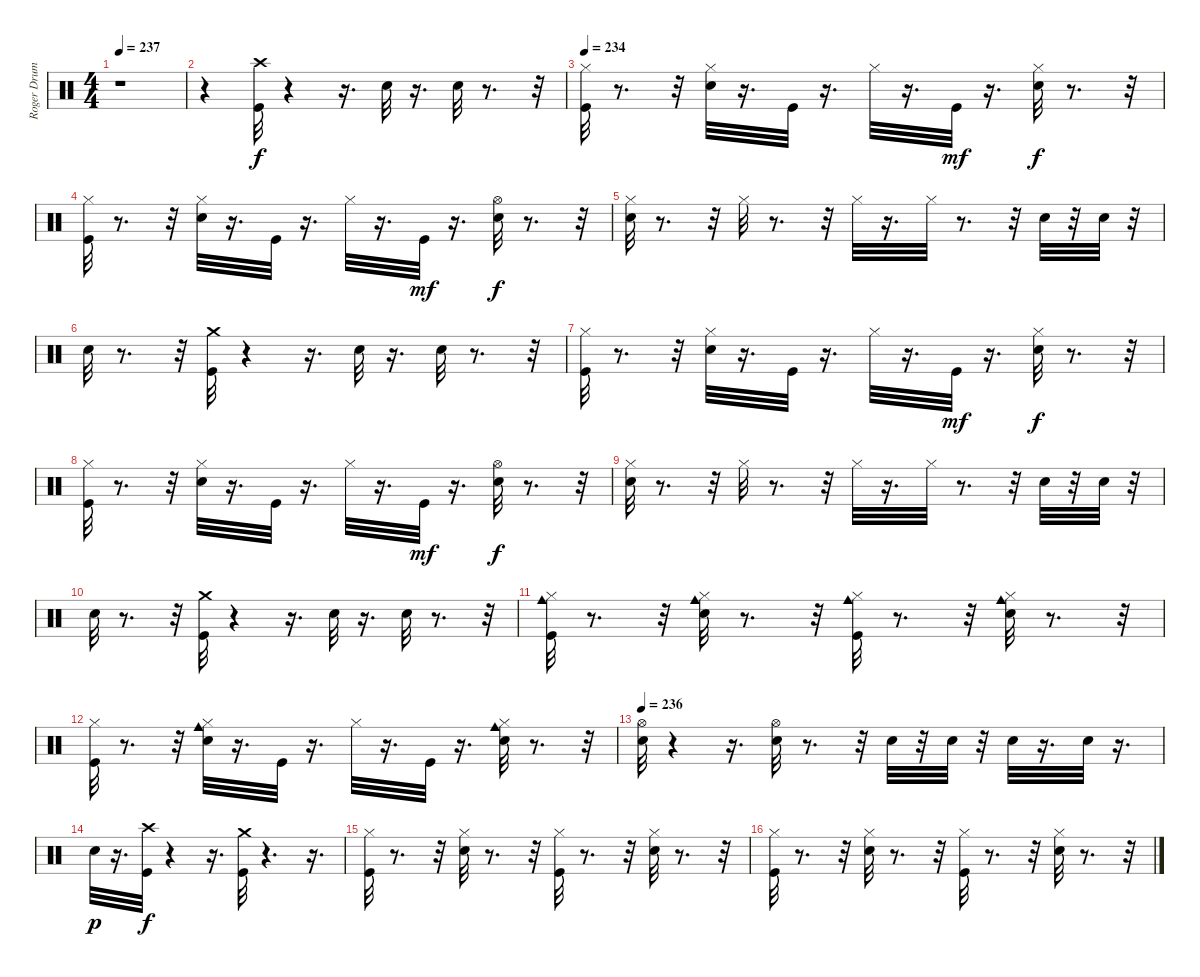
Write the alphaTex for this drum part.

\track ("Roger Drums" "Roger Drum") {instrument percussion}
\staff {score}
\articulation defaults
\ts (4 4)
\tempo 237
\clef neutral
\ks c
r.1{dy f} |
r.4 ("Kick (hit)" "Crash high (hit)").32 r.4 r.16{d} "Electric Snare (hit)".32 r.16{d} "Electric Snare (hit)".32 r.8{d} r.32 |
\tempo 234
("Hi-Hat (closed)" "Kick (hit)").32 r.8{d} r.32 ("Hi-Hat (closed)" "Electric Snare (hit)").32 r.16{d} "Kick (hit)".32 r.16{d} "Hi-Hat (closed)".32 r.16{d} "Kick (hit)".32{dy mf} r.16{d} ("Hi-Hat (closed)" "Electric Snare (hit)").32{dy f} r.8{d} r.32 |
("Hi-Hat (closed)" "Kick (hit)").32 r.8{d} r.32 ("Hi-Hat (closed)" "Electric Snare (hit)").32 r.16{d} "Kick (hit)".32 r.16{d} "Hi-Hat (closed)".32 r.16{d} "Kick (hit)".32{dy mf} r.16{d} ("Hi-Hat (open)" "Electric Snare (hit)").32{dy f} r.8{d} r.32 |
("Hi-Hat (closed)" "Electric Snare (hit)").32 r.8{d} r.32 "Hi-Hat (closed)".32 r.8{d} r.32 "Hi-Hat (closed)".32 r.16{d} "Hi-Hat (closed)".32 r.8{d} r.32 "Electric Snare (hit)".32 r.32 "Electric Snare (hit)".32 r.32 |
"Electric Snare (hit)".32 r.8{d} r.32 ("Kick (hit)" "Crash medium (hit)").32 r.4 r.16{d} "Electric Snare (hit)".32 r.16{d} "Electric Snare (hit)".32 r.8{d} r.32 |
("Hi-Hat (closed)" "Kick (hit)").32 r.8{d} r.32 ("Hi-Hat (closed)" "Electric Snare (hit)").32 r.16{d} "Kick (hit)".32 r.16{d} "Hi-Hat (closed)".32 r.16{d} "Kick (hit)".32{dy mf} r.16{d} ("Hi-Hat (closed)" "Electric Snare (hit)").32{dy f} r.8{d} r.32 |
("Hi-Hat (closed)" "Kick (hit)").32 r.8{d} r.32 ("Hi-Hat (closed)" "Electric Snare (hit)").32 r.16{d} "Kick (hit)".32 r.16{d} "Hi-Hat (closed)".32 r.16{d} "Kick (hit)".32{dy mf} r.16{d} ("Hi-Hat (open)" "Electric Snare (hit)").32{dy f} r.8{d} r.32 |
("Hi-Hat (closed)" "Electric Snare (hit)").32 r.8{d} r.32 "Hi-Hat (closed)".32 r.8{d} r.32 "Hi-Hat (closed)".32 r.16{d} "Hi-Hat (closed)".32 r.8{d} r.32 "Electric Snare (hit)".32 r.32 "Electric Snare (hit)".32 r.32 |
"Electric Snare (hit)".32 r.8{d} r.32 ("Kick (hit)" "Crash medium (hit)").32 r.4 r.16{d} "Electric Snare (hit)".32 r.16{d} "Electric Snare (hit)".32 r.8{d} r.32 |
("Cowbell medium (hit)" "Hi-Hat (closed)" "Kick (hit)").32 r.8{d} r.32 ("Cowbell medium (hit)" "Hi-Hat (closed)" "Electric Snare (hit)").32 r.8{d} r.32 ("Cowbell medium (hit)" "Hi-Hat (closed)" "Kick (hit)").32 r.8{d} r.32 ("Cowbell medium (hit)" "Hi-Hat (closed)" "Electric Snare (hit)").32 r.8{d} r.32 |
("Hi-Hat (closed)" "Kick (hit)").32 r.8{d} r.32 ("Cowbell medium (hit)" "Hi-Hat (closed)" "Electric Snare (hit)").32 r.16{d} "Kick (hit)".32 r.16{d} "Hi-Hat (closed)".32 r.16{d} "Kick (hit)".32 r.16{d} ("Cowbell medium (hit)" "Hi-Hat (closed)" "Electric Snare (hit)").32 r.8{d} r.32 |
\tempo 236
("Electric Snare (hit)" "Hi-Hat (open)").32 r.4 r.16{d} ("Hi-Hat (open)" "Electric Snare (hit)").32 r.8{d} r.32 "Electric Snare (hit)".32 r.32 "Electric Snare (hit)".32 r.32 "Electric Snare (hit)".32 r.16{d} "Electric Snare (hit)".32 r.16{d} |
"Electric Snare (hit)".32{dy p} r.16{d} ("Kick (hit)" "Crash high (hit)").32{dy f} r.4 r.16{d} ("Kick (hit)" "Crash medium (hit)").32 r.4{d} r.16{d} |
("Hi-Hat (closed)" "Kick (hit)").32 r.8{d} r.32 ("Hi-Hat (closed)" "Electric Snare (hit)").32 r.8{d} r.32 ("Hi-Hat (closed)" "Kick (hit)").32 r.8{d} r.32 ("Hi-Hat (closed)" "Electric Snare (hit)").32 r.8{d} r.32 |
("Hi-Hat (closed)" "Kick (hit)").32 r.8{d} r.32 ("Hi-Hat (closed)" "Electric Snare (hit)").32 r.8{d} r.32 ("Hi-Hat (closed)" "Kick (hit)").32 r.8{d} r.32 ("Hi-Hat (closed)" "Electric Snare (hit)").32 r.8{d} r.32
